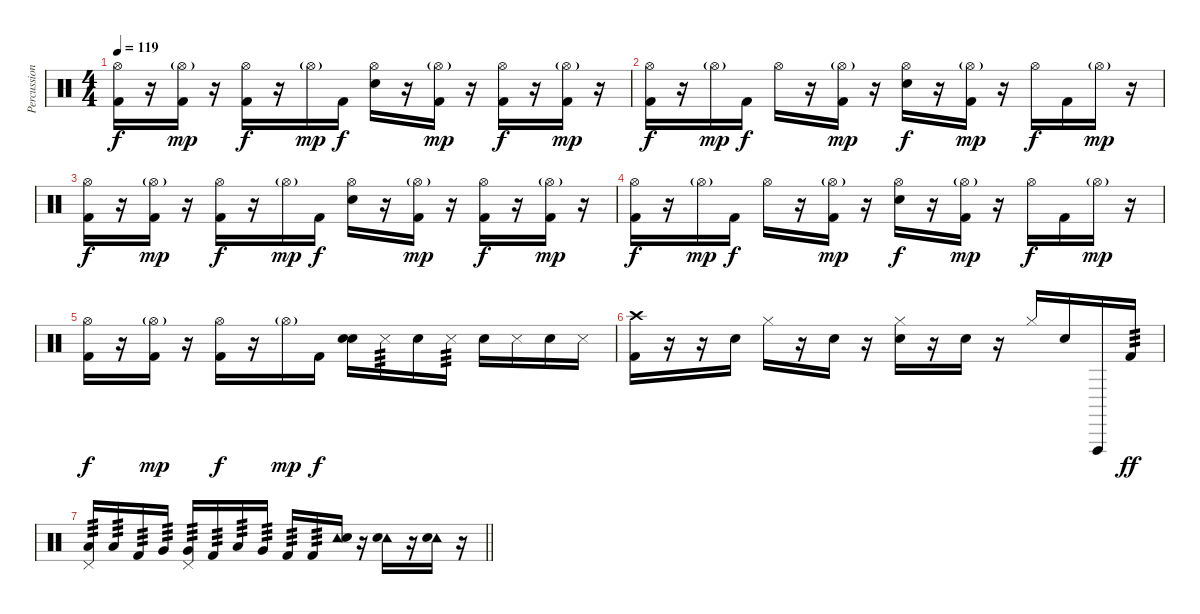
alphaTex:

\track ("Percussion" "Percussion") {instrument percussion}
\staff {score}
\articulation defaults
\ts (4 4)
\tempo 119
\clef neutral
\ks c
("Hi-Hat (open)" "Kick (hit) 2").16{dy f} r.16 ("Hi-Hat (open)"{g} "Kick (hit) 2").16{dy mp} r.16 ("Hi-Hat (open)" "Kick (hit) 2").16{dy f} r.16 "Hi-Hat (open)"{g}.16{dy mp} "Kick (hit) 2".16{dy f} ("Hi-Hat (open)" "Snare (hit) 2").16 r.16 ("Hi-Hat (open)"{g} "Kick (hit) 2").16{dy mp} r.16 ("Hi-Hat (open)" "Kick (hit) 2").16{dy f} r.16 ("Hi-Hat (open)"{g} "Kick (hit) 2").16{dy mp} r.16 |
("Hi-Hat (open)" "Kick (hit) 2").16{dy f} r.16 "Hi-Hat (open)"{g}.16{dy mp} "Kick (hit) 2".16{dy f} "Hi-Hat (open)".16 r.16 ("Hi-Hat (open)"{g} "Kick (hit) 2").16{dy mp} r.16 ("Hi-Hat (open)" "Snare (hit) 2").16{dy f} r.16 ("Hi-Hat (open)"{g} "Kick (hit) 2").16{dy mp} r.16 "Hi-Hat (open)".16{dy f} "Kick (hit) 2".16 "Hi-Hat (open)"{g}.16{dy mp} r.16 |
("Hi-Hat (open)" "Kick (hit) 2").16{dy f} r.16 ("Hi-Hat (open)"{g} "Kick (hit) 2").16{dy mp} r.16 ("Hi-Hat (open)" "Kick (hit) 2").16{dy f} r.16 "Hi-Hat (open)"{g}.16{dy mp} "Kick (hit) 2".16{dy f} ("Hi-Hat (open)" "Snare (hit) 2").16 r.16 ("Hi-Hat (open)"{g} "Kick (hit) 2").16{dy mp} r.16 ("Hi-Hat (open)" "Kick (hit) 2").16{dy f} r.16 ("Hi-Hat (open)"{g} "Kick (hit) 2").16{dy mp} r.16 |
("Hi-Hat (open)" "Kick (hit) 2").16{dy f} r.16 "Hi-Hat (open)"{g}.16{dy mp} "Kick (hit) 2".16{dy f} "Hi-Hat (open)".16 r.16 ("Hi-Hat (open)"{g} "Kick (hit) 2").16{dy mp} r.16 ("Hi-Hat (open)" "Snare (hit) 2").16{dy f} r.16 ("Hi-Hat (open)"{g} "Kick (hit) 2").16{dy mp} r.16 "Hi-Hat (open)".16{dy f} "Kick (hit) 2".16 "Hi-Hat (open)"{g}.16{dy mp} r.16 |
("Hi-Hat (open)" "Kick (hit) 2").16{dy f} r.16 ("Hi-Hat (open)"{g} "Kick (hit) 2").16{dy mp} r.16 ("Hi-Hat (open)" "Kick (hit) 2").16{dy f} r.16 "Hi-Hat (open)"{g}.16{dy mp} "Kick (hit) 2".16{dy f} ("Snare (hit)" "Snare (hit) 2").16 "Metronome (hit)".16{tp 3} "Snare (hit) 2".16 "Metronome (hit)".16{tp 3} "Snare (hit) 2".16 "Metronome (hit)".16 "Snare (hit) 2".16 "Metronome (hit)".16 |
("Crash high (hit)" "Kick (hit) 2").16 r.16 r.16 "Snare (hit) 2".16 "Hi-Hat (closed)".16 r.16 "Snare (hit) 2".16 r.16 ("Hi-Hat (closed)" "Snare (hit) 2").16 r.16 "Snare (hit) 2".16 r.16 "Hi-Hat (closed)".16 "Snare (hit) 2".16 "Vibraslap (hit)".16 "Kick (hit) 2".16{tp 3 dy ff} |
\barLineRight lightlight
("Pedal Hi-Hat (hit)" "Low Tom (hit)").16{tp 3} "Low Tom (hit)".16{tp 3} "Kick (hit) 2".16{tp 3} "Very Low Tom (hit)".16{tp 3} ("Pedal Hi-Hat (hit)" "Very Low Tom (hit)").16{tp 3} "Kick (hit) 2".16{tp 3} "Low Tom (hit)".16{tp 3} "Very Low Tom (hit)".16{tp 3} "Kick (hit) 2".16{tp 3} "Kick (hit) 2".16{tp 3} ("Tambourine (hit)" "Snare (hit) 2").16 r.16 ("Tambourine (hit)" "Snare (hit) 2").16 r.16 ("Tambourine (hit)" "Snare (hit) 2").16 r.16
